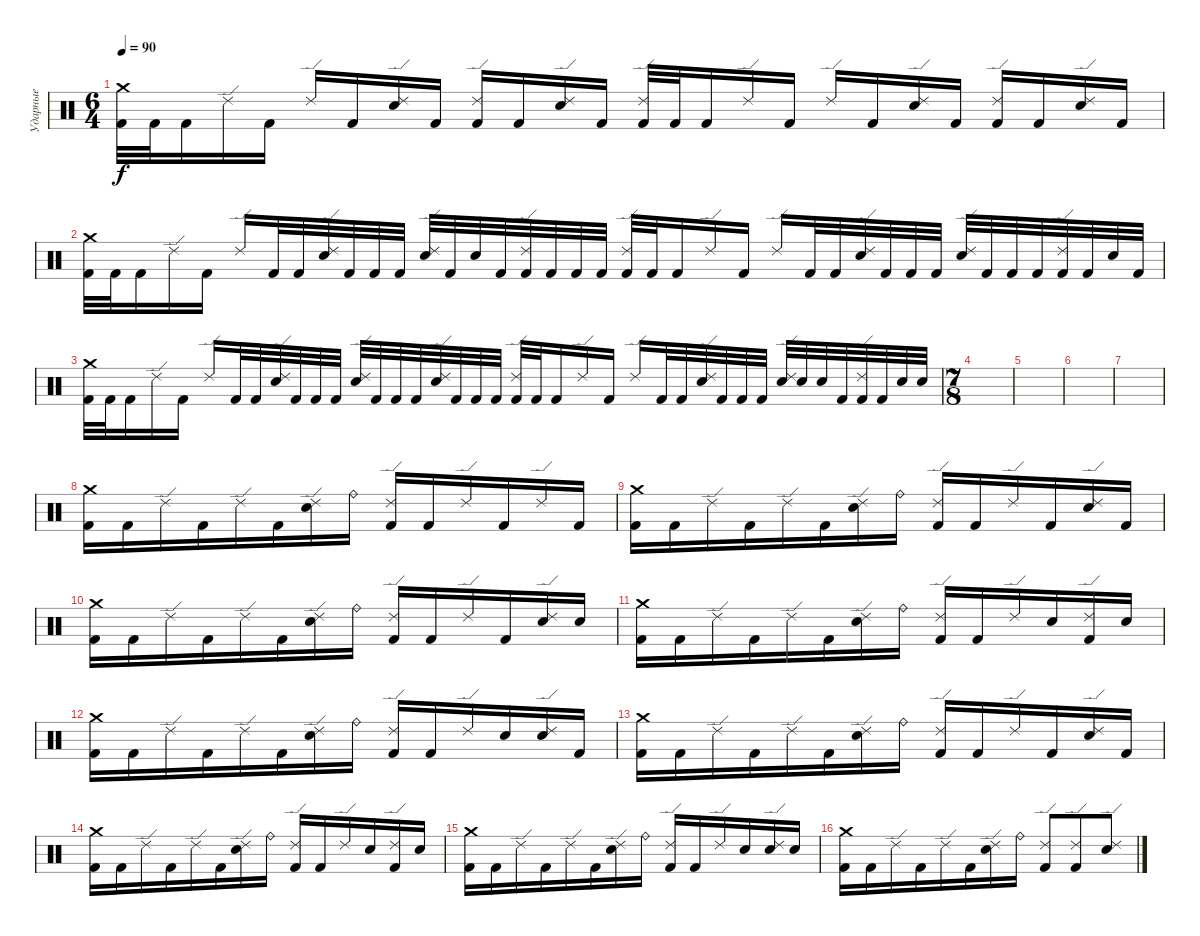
\track ("Ударные" "Ударные") {instrument percussion}
\staff {score}
\articulation defaults
\ts (6 4)
\tempo 90
\clef neutral
\ks c
("Crash medium (hit)" "Kick (hit) 2").32{dy f} "Kick (hit) 2".32 "Kick (hit) 2".16 "Ride (edge) 2".16 "Kick (hit) 2".16 "Ride (edge) 2".16 "Kick (hit) 2".16 ("Ride (edge) 2" "Electric Snare (hit)").16 "Kick (hit) 2".16 ("Ride (edge) 2" "Kick (hit) 2").16 "Kick (hit) 2".16 ("Ride (edge) 2" "Electric Snare (hit)").16 "Kick (hit) 2".16 ("Ride (edge) 2" "Kick (hit) 2").32 "Kick (hit) 2".32 "Kick (hit) 2".16 "Ride (edge) 2".16 "Kick (hit) 2".16 "Ride (edge) 2".16 "Kick (hit) 2".16 ("Ride (edge) 2" "Electric Snare (hit)").16 "Kick (hit) 2".16 ("Ride (edge) 2" "Kick (hit) 2").16 "Kick (hit) 2".16 ("Ride (edge) 2" "Electric Snare (hit)").16 "Kick (hit) 2".16 |
("Crash medium (hit)" "Kick (hit) 2").32 "Kick (hit) 2".32 "Kick (hit) 2".16 "Ride (edge) 2".16 "Kick (hit) 2".16 "Ride (edge) 2".16 "Kick (hit) 2".32 "Kick (hit) 2".32 ("Ride (edge) 2" "Electric Snare (hit)").32 "Kick (hit) 2".32 "Kick (hit) 2".32 "Kick (hit) 2".32 ("Ride (edge) 2" "Electric Snare (hit)").32 "Kick (hit) 2".32 "Electric Snare (hit)".32 "Kick (hit) 2".32 ("Ride (edge) 2" "Kick (hit) 2").32 "Kick (hit) 2".32 "Kick (hit) 2".32 "Kick (hit) 2".32 ("Ride (edge) 2" "Kick (hit) 2").32 "Kick (hit) 2".32 "Kick (hit) 2".16 "Ride (edge) 2".16 "Kick (hit) 2".16 "Ride (edge) 2".16 "Kick (hit) 2".32 "Kick (hit) 2".32 ("Ride (edge) 2" "Electric Snare (hit)").32 "Kick (hit) 2".32 "Kick (hit) 2".32 "Kick (hit) 2".32 ("Ride (edge) 2" "Electric Snare (hit)").32 "Kick (hit) 2".32 "Kick (hit) 2".32 "Kick (hit) 2".32 ("Ride (edge) 2" "Kick (hit) 2").32 "Kick (hit) 2".32 "Electric Snare (hit)".32 "Kick (hit) 2".32 |
("Crash medium (hit)" "Kick (hit) 2").32 "Kick (hit) 2".32 "Kick (hit) 2".16 "Ride (edge) 2".16 "Kick (hit) 2".16 "Ride (edge) 2".16 "Kick (hit) 2".32 "Kick (hit) 2".32 ("Ride (edge) 2" "Electric Snare (hit)").32 "Kick (hit) 2".32 "Kick (hit) 2".32 "Kick (hit) 2".32 ("Ride (edge) 2" "Electric Snare (hit)").32 "Kick (hit) 2".32 "Kick (hit) 2".32 "Kick (hit) 2".32 ("Ride (edge) 2" "Electric Snare (hit)").32 "Kick (hit) 2".32 "Kick (hit) 2".32 "Kick (hit) 2".32 ("Ride (edge) 2" "Kick (hit) 2").32 "Kick (hit) 2".32 "Kick (hit) 2".16 "Ride (edge) 2".16 "Kick (hit) 2".16 "Ride (edge) 2".16 "Kick (hit) 2".32 "Kick (hit) 2".32 ("Ride (edge) 2" "Electric Snare (hit)").32 "Kick (hit) 2".32 "Kick (hit) 2".32 "Kick (hit) 2".32 ("Ride (edge) 2" "Electric Snare (hit)").32 "Electric Snare (hit)".32 "Electric Snare (hit)".32 "Kick (hit) 2".32 ("Ride (edge) 2" "Kick (hit) 2").32 "Kick (hit) 2".32 "Electric Snare (hit)".32 "Electric Snare (hit)".32 |
\ts (7 8)
|
|
|
|
("Crash medium (hit)" "Kick (hit) 2").16 "Kick (hit) 2".16 "Ride (edge) 2".16 "Kick (hit) 2".16 "Ride (edge) 2".16 "Kick (hit) 2".16 ("Ride (edge) 2" "Electric Snare (hit)").16 "Ride (bell)".16 ("Ride (edge) 2" "Kick (hit) 2").16 "Kick (hit) 2".16 "Ride (edge) 2".16 "Kick (hit) 2".16 "Ride (edge) 2".16 "Kick (hit) 2".16 |
("Crash medium (hit)" "Kick (hit) 2").16 "Kick (hit) 2".16 "Ride (edge) 2".16 "Kick (hit) 2".16 "Ride (edge) 2".16 "Kick (hit) 2".16 ("Ride (edge) 2" "Electric Snare (hit)").16 "Ride (bell)".16 ("Ride (edge) 2" "Kick (hit) 2").16 "Kick (hit) 2".16 "Ride (edge) 2".16 "Kick (hit) 2".16 ("Electric Snare (hit)" "Ride (edge) 2").16 "Kick (hit) 2".16 |
("Crash medium (hit)" "Kick (hit) 2").16 "Kick (hit) 2".16 "Ride (edge) 2".16 "Kick (hit) 2".16 "Ride (edge) 2".16 "Kick (hit) 2".16 ("Ride (edge) 2" "Electric Snare (hit)").16 "Ride (bell)".16 ("Ride (edge) 2" "Kick (hit) 2").16 "Kick (hit) 2".16 "Ride (edge) 2".16 "Kick (hit) 2".16 ("Electric Snare (hit)" "Ride (edge) 2").16 "Electric Snare (hit)".16 |
("Crash medium (hit)" "Kick (hit) 2").16 "Kick (hit) 2".16 "Ride (edge) 2".16 "Kick (hit) 2".16 "Ride (edge) 2".16 "Kick (hit) 2".16 ("Ride (edge) 2" "Electric Snare (hit)").16 "Ride (bell)".16 ("Ride (edge) 2" "Kick (hit) 2").16 "Kick (hit) 2".16 "Ride (edge) 2".16 "Electric Snare (hit)".16 ("Kick (hit) 2" "Ride (edge) 2").16 "Electric Snare (hit)".16 |
("Crash medium (hit)" "Kick (hit) 2").16 "Kick (hit) 2".16 "Ride (edge) 2".16 "Kick (hit) 2".16 "Ride (edge) 2".16 "Kick (hit) 2".16 ("Ride (edge) 2" "Electric Snare (hit)").16 "Ride (bell)".16 ("Ride (edge) 2" "Kick (hit) 2").16 "Kick (hit) 2".16 "Ride (edge) 2".16 "Electric Snare (hit)".16 ("Electric Snare (hit)" "Ride (edge) 2").16 "Kick (hit) 2".16 |
("Crash medium (hit)" "Kick (hit) 2").16 "Kick (hit) 2".16 "Ride (edge) 2".16 "Kick (hit) 2".16 "Ride (edge) 2".16 "Kick (hit) 2".16 ("Ride (edge) 2" "Electric Snare (hit)").16 "Ride (bell)".16 ("Ride (edge) 2" "Kick (hit) 2").16 "Kick (hit) 2".16 "Ride (edge) 2".16 "Kick (hit) 2".16 ("Electric Snare (hit)" "Ride (edge) 2").16 "Kick (hit) 2".16 |
("Crash medium (hit)" "Kick (hit) 2").16 "Kick (hit) 2".16 "Ride (edge) 2".16 "Kick (hit) 2".16 "Ride (edge) 2".16 "Kick (hit) 2".16 ("Ride (edge) 2" "Electric Snare (hit)").16 "Ride (bell)".16 ("Ride (edge) 2" "Kick (hit) 2").16 "Kick (hit) 2".16 "Ride (edge) 2".16 "Electric Snare (hit)".16 ("Kick (hit) 2" "Ride (edge) 2").16 "Electric Snare (hit)".16 |
("Crash medium (hit)" "Kick (hit) 2").16 "Kick (hit) 2".16 "Ride (edge) 2".16 "Kick (hit) 2".16 "Ride (edge) 2".16 "Kick (hit) 2".16 ("Ride (edge) 2" "Electric Snare (hit)").16 "Ride (bell)".16 ("Ride (edge) 2" "Kick (hit) 2").16 "Kick (hit) 2".16 "Ride (edge) 2".16 "Electric Snare (hit)".16 ("Electric Snare (hit)" "Ride (edge) 2").16 "Electric Snare (hit)".16 |
("Crash medium (hit)" "Kick (hit) 2").16 "Kick (hit) 2".16 "Ride (edge) 2".16 "Kick (hit) 2".16 "Ride (edge) 2".16 "Kick (hit) 2".16 ("Ride (edge) 2" "Electric Snare (hit)").16 "Ride (bell)".16 ("Ride (edge) 2" "Kick (hit) 2").8 ("Ride (edge) 2" "Kick (hit) 2").8 ("Ride (edge) 2" "Electric Snare (hit)").8
